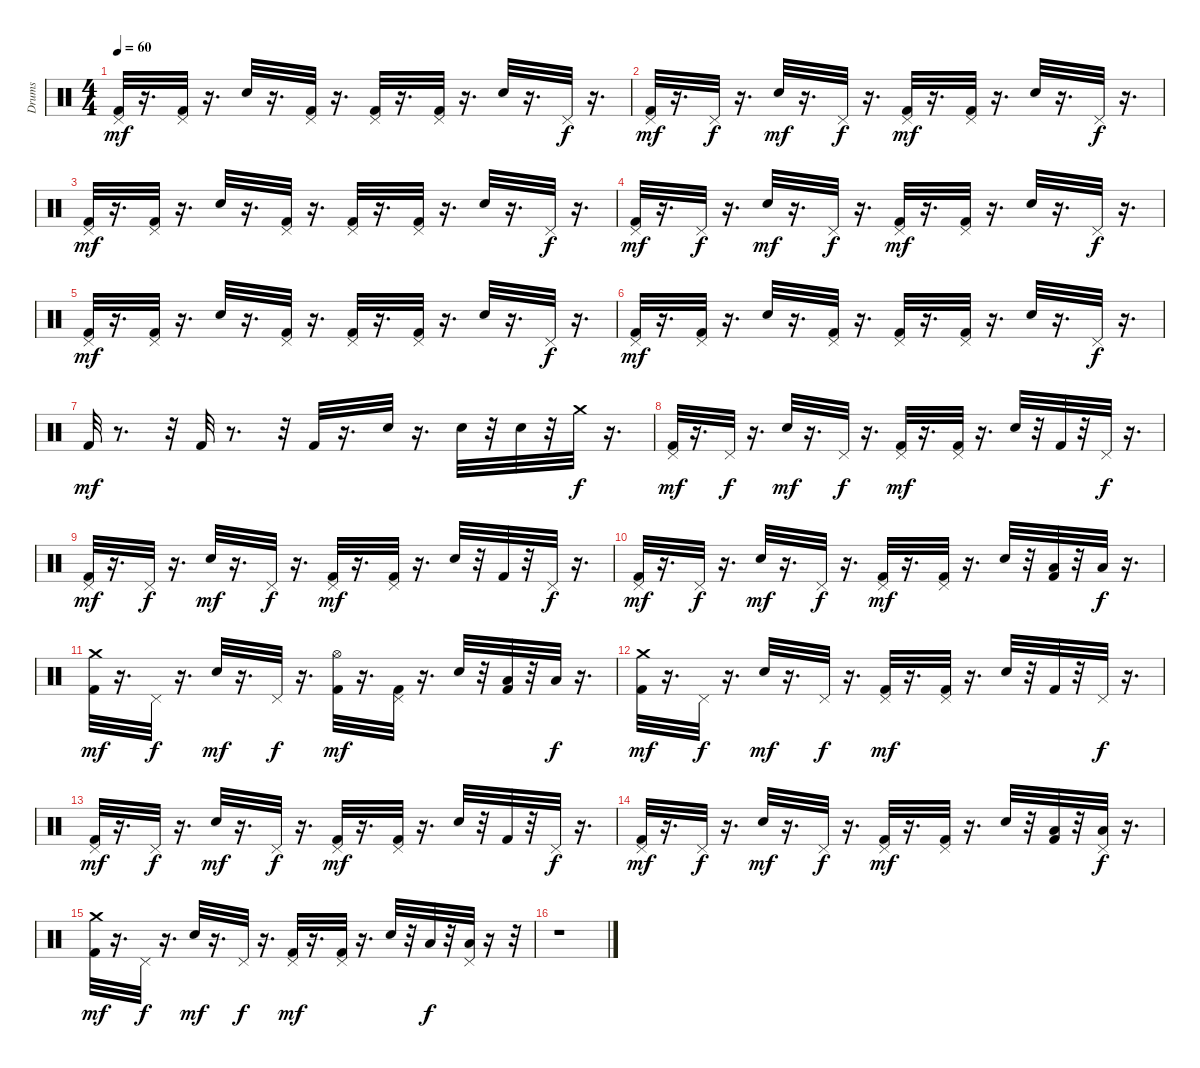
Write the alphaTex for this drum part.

\track ("Drums" "Drums") {instrument percussion}
\staff {score}
\articulation defaults
\ts (4 4)
\tempo 60
\clef neutral
\ks c
("Pedal Hi-Hat (hit)" "Kick (hit) 2").32{dy mf} r.16{d} ("Kick (hit) 2" "Pedal Hi-Hat (hit)").32 r.16{d} "Electric Snare (hit)".32 r.16{d} ("Pedal Hi-Hat (hit)" "Kick (hit) 2").32 r.16{d} ("Kick (hit) 2" "Pedal Hi-Hat (hit)").32 r.16{d} ("Kick (hit) 2" "Pedal Hi-Hat (hit)").32 r.16{d} "Electric Snare (hit)".32 r.16{d} "Pedal Hi-Hat (hit)".32{dy f} r.16{d} |
("Pedal Hi-Hat (hit)" "Kick (hit) 2").32{dy mf} r.16{d} "Pedal Hi-Hat (hit)".32{dy f} r.16{d} "Electric Snare (hit)".32{dy mf} r.16{d} "Pedal Hi-Hat (hit)".32{dy f} r.16{d} ("Pedal Hi-Hat (hit)" "Kick (hit) 2").32{dy mf} r.16{d} ("Kick (hit) 2" "Pedal Hi-Hat (hit)").32 r.16{d} "Electric Snare (hit)".32 r.16{d} "Pedal Hi-Hat (hit)".32{dy f} r.16{d} |
("Pedal Hi-Hat (hit)" "Kick (hit) 2").32{dy mf} r.16{d} ("Kick (hit) 2" "Pedal Hi-Hat (hit)").32 r.16{d} "Electric Snare (hit)".32 r.16{d} ("Pedal Hi-Hat (hit)" "Kick (hit) 2").32 r.16{d} ("Kick (hit) 2" "Pedal Hi-Hat (hit)").32 r.16{d} ("Kick (hit) 2" "Pedal Hi-Hat (hit)").32 r.16{d} "Electric Snare (hit)".32 r.16{d} "Pedal Hi-Hat (hit)".32{dy f} r.16{d} |
("Pedal Hi-Hat (hit)" "Kick (hit) 2").32{dy mf} r.16{d} "Pedal Hi-Hat (hit)".32{dy f} r.16{d} "Electric Snare (hit)".32{dy mf} r.16{d} "Pedal Hi-Hat (hit)".32{dy f} r.16{d} ("Pedal Hi-Hat (hit)" "Kick (hit) 2").32{dy mf} r.16{d} ("Kick (hit) 2" "Pedal Hi-Hat (hit)").32 r.16{d} "Electric Snare (hit)".32 r.16{d} "Pedal Hi-Hat (hit)".32{dy f} r.16{d} |
("Pedal Hi-Hat (hit)" "Kick (hit) 2").32{dy mf} r.16{d} ("Kick (hit) 2" "Pedal Hi-Hat (hit)").32 r.16{d} "Electric Snare (hit)".32 r.16{d} ("Pedal Hi-Hat (hit)" "Kick (hit) 2").32 r.16{d} ("Kick (hit) 2" "Pedal Hi-Hat (hit)").32 r.16{d} ("Kick (hit) 2" "Pedal Hi-Hat (hit)").32 r.16{d} "Electric Snare (hit)".32 r.16{d} "Pedal Hi-Hat (hit)".32{dy f} r.16{d} |
("Pedal Hi-Hat (hit)" "Kick (hit) 2").32{dy mf} r.16{d} ("Kick (hit) 2" "Pedal Hi-Hat (hit)").32 r.16{d} "Electric Snare (hit)".32 r.16{d} ("Pedal Hi-Hat (hit)" "Kick (hit) 2").32 r.16{d} ("Kick (hit) 2" "Pedal Hi-Hat (hit)").32 r.16{d} ("Kick (hit) 2" "Pedal Hi-Hat (hit)").32 r.16{d} "Electric Snare (hit)".32 r.16{d} "Pedal Hi-Hat (hit)".32{dy f} r.16{d} |
"Kick (hit) 2".32{dy mf} r.8{d} r.32 "Kick (hit) 2".32 r.8{d} r.32 "Kick (hit) 2".32 r.16{d} "Electric Snare (hit)".32 r.16{d} "Electric Snare (hit)".32 r.32 "Electric Snare (hit)".32 r.32 "Crash medium (hit)".32{dy f} r.16{d} |
("Pedal Hi-Hat (hit)" "Kick (hit) 2").32{dy mf} r.16{d} "Pedal Hi-Hat (hit)".32{dy f} r.16{d} "Electric Snare (hit)".32{dy mf} r.16{d} "Pedal Hi-Hat (hit)".32{dy f} r.16{d} ("Pedal Hi-Hat (hit)" "Kick (hit) 2").32{dy mf} r.16{d} ("Kick (hit) 2" "Pedal Hi-Hat (hit)").32 r.16{d} "Electric Snare (hit)".32 r.32 "Kick (hit) 2".32 r.32 "Pedal Hi-Hat (hit)".32{dy f} r.16{d} |
("Pedal Hi-Hat (hit)" "Kick (hit) 2").32{dy mf} r.16{d} "Pedal Hi-Hat (hit)".32{dy f} r.16{d} "Electric Snare (hit)".32{dy mf} r.16{d} "Pedal Hi-Hat (hit)".32{dy f} r.16{d} ("Pedal Hi-Hat (hit)" "Kick (hit) 2").32{dy mf} r.16{d} ("Kick (hit) 2" "Pedal Hi-Hat (hit)").32 r.16{d} "Electric Snare (hit)".32 r.32 "Kick (hit) 2".32 r.32 "Pedal Hi-Hat (hit)".32{dy f} r.16{d} |
("Pedal Hi-Hat (hit)" "Kick (hit) 2").32{dy mf} r.16{d} "Pedal Hi-Hat (hit)".32{dy f} r.16{d} "Electric Snare (hit)".32{dy mf} r.16{d} "Pedal Hi-Hat (hit)".32{dy f} r.16{d} ("Pedal Hi-Hat (hit)" "Kick (hit) 2").32{dy mf} r.16{d} ("Kick (hit) 2" "Pedal Hi-Hat (hit)").32 r.16{d} "Electric Snare (hit)".32 r.32 ("Low Floor Tom (hit)" "Kick (hit) 2").32 r.32 "Low Floor Tom (hit)".32{dy f} r.16{d} |
("Crash medium (hit)" "Kick (hit) 2").32{dy mf} r.16{d} "Pedal Hi-Hat (hit)".32{dy f} r.16{d} "Electric Snare (hit)".32{dy mf} r.16{d} "Pedal Hi-Hat (hit)".32{dy f} r.16{d} ("Hi-Hat (open)" "Kick (hit) 2").32{dy mf} r.16{d} ("Kick (hit) 2" "Pedal Hi-Hat (hit)").32 r.16{d} "Electric Snare (hit)".32 r.32 ("Low Floor Tom (hit)" "Kick (hit) 2").32 r.32 "Low Floor Tom (hit)".32{dy f} r.16{d} |
("Crash medium (hit)" "Kick (hit) 2").32{dy mf} r.16{d} "Pedal Hi-Hat (hit)".32{dy f} r.16{d} "Electric Snare (hit)".32{dy mf} r.16{d} "Pedal Hi-Hat (hit)".32{dy f} r.16{d} ("Pedal Hi-Hat (hit)" "Kick (hit) 2").32{dy mf} r.16{d} ("Kick (hit) 2" "Pedal Hi-Hat (hit)").32 r.16{d} "Electric Snare (hit)".32 r.32 "Kick (hit) 2".32 r.32 "Pedal Hi-Hat (hit)".32{dy f} r.16{d} |
("Pedal Hi-Hat (hit)" "Kick (hit) 2").32{dy mf} r.16{d} "Pedal Hi-Hat (hit)".32{dy f} r.16{d} "Electric Snare (hit)".32{dy mf} r.16{d} "Pedal Hi-Hat (hit)".32{dy f} r.16{d} ("Pedal Hi-Hat (hit)" "Kick (hit) 2").32{dy mf} r.16{d} ("Kick (hit) 2" "Pedal Hi-Hat (hit)").32 r.16{d} "Electric Snare (hit)".32 r.32 "Kick (hit) 2".32 r.32 "Pedal Hi-Hat (hit)".32{dy f} r.16{d} |
("Pedal Hi-Hat (hit)" "Kick (hit) 2").32{dy mf} r.16{d} "Pedal Hi-Hat (hit)".32{dy f} r.16{d} "Electric Snare (hit)".32{dy mf} r.16{d} "Pedal Hi-Hat (hit)".32{dy f} r.16{d} ("Pedal Hi-Hat (hit)" "Kick (hit) 2").32{dy mf} r.16{d} ("Kick (hit) 2" "Pedal Hi-Hat (hit)").32 r.16{d} "Electric Snare (hit)".32 r.32 ("Low Floor Tom (hit)" "Kick (hit) 2").32 r.32 ("Low Floor Tom (hit)" "Pedal Hi-Hat (hit)").32{dy f} r.16{d} |
("Crash medium (hit)" "Kick (hit) 2").32{dy mf} r.16{d} "Pedal Hi-Hat (hit)".32{dy f} r.16{d} "Electric Snare (hit)".32{dy mf} r.16{d} "Pedal Hi-Hat (hit)".32{dy f} r.16{d} ("Pedal Hi-Hat (hit)" "Kick (hit) 2").32{dy mf} r.16{d} ("Kick (hit) 2" "Pedal Hi-Hat (hit)").32 r.16{d} "Electric Snare (hit)".32 r.32 "Low Floor Tom (hit)".32{dy f} r.32 ("Low Floor Tom (hit)" "Pedal Hi-Hat (hit)").32 r.16 r.32 |
r.1
